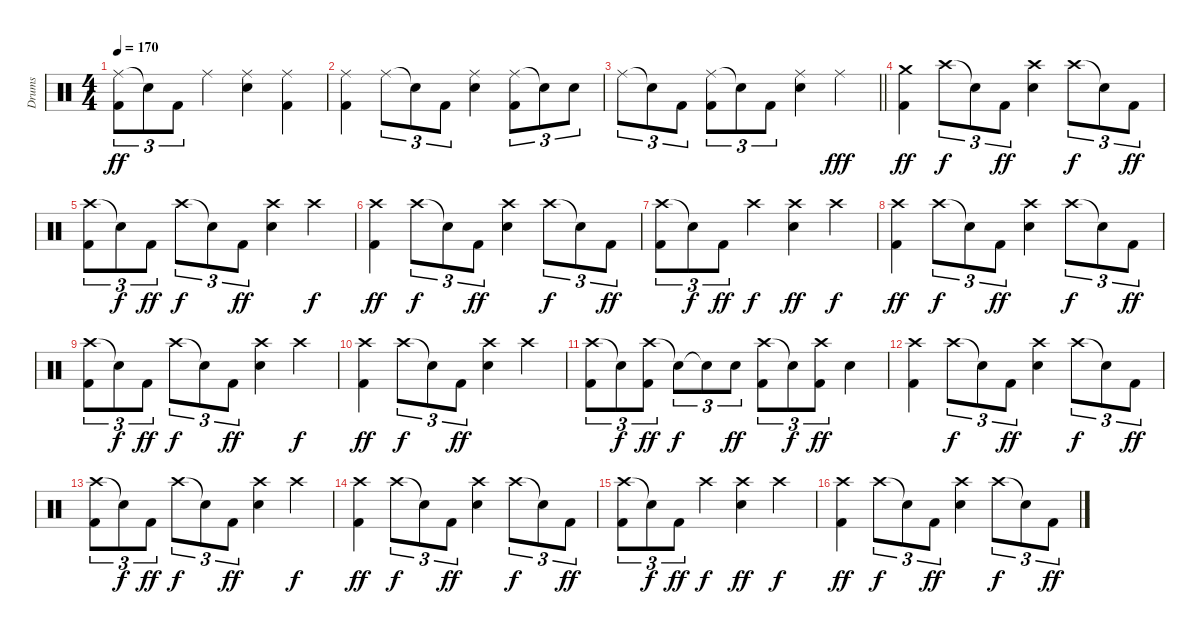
\track ("Drums" "Drums") {instrument percussion}
\staff {score}
\articulation defaults
\ts (4 4)
\tempo 170
\clef neutral
\ks c
("Ride (middle)" "Kick (hit) 2").8{tu (3 2) dy ff} "Snare (hit)"{t}.8{tu (3 2)} "Kick (hit) 2".8{tu (3 2)} "Ride (middle)".4 ("Ride (middle)" "Snare (hit) 2").4 ("Ride (middle)" "Kick (hit) 2").4 |
("Ride (middle)" "Kick (hit) 2").4 "Ride (middle)".8{tu (3 2)} "Snare (hit)"{t}.8{tu (3 2)} "Kick (hit) 2".8{tu (3 2)} ("Ride (middle)" "Snare (hit) 2").4 ("Ride (middle)" "Kick (hit) 2").8{tu (3 2)} "Snare (hit)"{t}.8{tu (3 2)} "Snare (hit) 2".8{tu (3 2)} |
\barLineRight lightlight "Ride (middle)".8{tu (3 2)} "Snare (hit)"{t}.8{tu (3 2)} "Kick (hit) 2".8{tu (3 2)}
("Ride (middle)" "Kick (hit) 2").8{tu (3 2)} "Snare (hit)"{t}.8{tu (3 2)} "Kick (hit) 2".8{tu (3 2)} ("Ride (middle)" "Snare (hit) 2").4 "Ride (middle)".4{dy fff} |
("Crash medium (hit)" "Kick (hit) 2").4{dy ff} "Crash high (hit)".8{tu (3 2) dy f} "Snare (hit)"{t}.8{tu (3 2)} "Kick (hit) 2".8{tu (3 2) dy ff} ("Crash high (hit)" "Snare (hit) 2").4 "Crash high (hit)".8{tu (3 2) dy f} "Snare (hit)"{t}.8{tu (3 2)} "Kick (hit) 2".8{tu (3 2) dy ff} |
("Crash high (hit)" "Kick (hit) 2").8{tu (3 2)} "Snare (hit)"{t}.8{tu (3 2) dy f} "Kick (hit) 2".8{tu (3 2) dy ff} "Crash high (hit)".8{tu (3 2) dy f} "Snare (hit)"{t}.8{tu (3 2)} "Kick (hit) 2".8{tu (3 2) dy ff} ("Crash high (hit)" "Snare (hit) 2").4 "Crash high (hit)".4{dy f} |
("Crash high (hit)" "Kick (hit) 2").4{dy ff} "Crash high (hit)".8{tu (3 2) dy f} "Snare (hit)"{t}.8{tu (3 2)} "Kick (hit) 2".8{tu (3 2) dy ff} ("Crash high (hit)" "Snare (hit) 2").4 "Crash high (hit)".8{tu (3 2) dy f} "Snare (hit)"{t}.8{tu (3 2)} "Kick (hit) 2".8{tu (3 2) dy ff} |
("Crash high (hit)" "Kick (hit) 2").8{tu (3 2)} "Snare (hit)"{t}.8{tu (3 2) dy f} "Kick (hit) 2".8{tu (3 2) dy ff} "Crash high (hit)".4{dy f} ("Crash high (hit)" "Snare (hit) 2").4{dy ff} "Crash high (hit)".4{dy f} |
("Crash high (hit)" "Kick (hit) 2").4{dy ff} "Crash high (hit)".8{tu (3 2) dy f} "Snare (hit)"{t}.8{tu (3 2)} "Kick (hit) 2".8{tu (3 2) dy ff} ("Crash high (hit)" "Snare (hit) 2").4 "Crash high (hit)".8{tu (3 2) dy f} "Snare (hit)"{t}.8{tu (3 2)} "Kick (hit) 2".8{tu (3 2) dy ff} |
("Crash high (hit)" "Kick (hit) 2").8{tu (3 2)} "Snare (hit)"{t}.8{tu (3 2) dy f} "Kick (hit) 2".8{tu (3 2) dy ff} "Crash high (hit)".8{tu (3 2) dy f} "Snare (hit)"{t}.8{tu (3 2)} "Kick (hit) 2".8{tu (3 2) dy ff} ("Crash high (hit)" "Snare (hit) 2").4 "Crash high (hit)".4{dy f} |
("Crash high (hit)" "Kick (hit) 2").4{dy ff} "Crash high (hit)".8{tu (3 2) dy f} "Snare (hit)"{t}.8{tu (3 2)} "Kick (hit) 2".8{tu (3 2) dy ff} ("Crash high (hit)" "Snare (hit) 2").4 "Crash high (hit)".4 |
("Crash high (hit)" "Kick (hit) 2").8{tu (3 2)} "Snare (hit)"{t}.8{tu (3 2) dy f} ("Crash high (hit)" "Kick (hit) 2").8{tu (3 2) dy ff} "Snare (hit)"{t}.8{tu (3 2) dy f} "Snare (hit)"{t}.8{tu (3 2)} "Snare (hit) 2".8{tu (3 2) dy ff} ("Crash high (hit)" "Kick (hit) 2").8{tu (3 2)} "Snare (hit)"{t}.8{tu (3 2) dy f} ("Crash high (hit)" "Kick (hit) 2").8{tu (3 2) dy ff} "Snare (hit) 2".4 |
("Crash high (hit)" "Kick (hit) 2").4 "Crash high (hit)".8{tu (3 2) dy f} "Snare (hit)"{t}.8{tu (3 2)} "Kick (hit) 2".8{tu (3 2) dy ff} ("Crash high (hit)" "Snare (hit) 2").4 "Crash high (hit)".8{tu (3 2) dy f} "Snare (hit)"{t}.8{tu (3 2)} "Kick (hit) 2".8{tu (3 2) dy ff} |
("Crash high (hit)" "Kick (hit) 2").8{tu (3 2)} "Snare (hit)"{t}.8{tu (3 2) dy f} "Kick (hit) 2".8{tu (3 2) dy ff} "Crash high (hit)".8{tu (3 2) dy f} "Snare (hit)"{t}.8{tu (3 2)} "Kick (hit) 2".8{tu (3 2) dy ff} ("Crash high (hit)" "Snare (hit) 2").4 "Crash high (hit)".4{dy f} |
("Crash high (hit)" "Kick (hit) 2").4{dy ff} "Crash high (hit)".8{tu (3 2) dy f} "Snare (hit)"{t}.8{tu (3 2)} "Kick (hit) 2".8{tu (3 2) dy ff} ("Crash high (hit)" "Snare (hit) 2").4 "Crash high (hit)".8{tu (3 2) dy f} "Snare (hit)"{t}.8{tu (3 2)} "Kick (hit) 2".8{tu (3 2) dy ff} |
("Crash high (hit)" "Kick (hit) 2").8{tu (3 2)} "Snare (hit)"{t}.8{tu (3 2) dy f} "Kick (hit) 2".8{tu (3 2) dy ff} "Crash high (hit)".4{dy f} ("Crash high (hit)" "Snare (hit) 2").4{dy ff} "Crash high (hit)".4{dy f} |
("Crash high (hit)" "Kick (hit) 2").4{dy ff} "Crash high (hit)".8{tu (3 2) dy f} "Snare (hit)"{t}.8{tu (3 2)} "Kick (hit) 2".8{tu (3 2) dy ff} ("Crash high (hit)" "Snare (hit) 2").4 "Crash high (hit)".8{tu (3 2) dy f} "Snare (hit)"{t}.8{tu (3 2)} "Kick (hit) 2".8{tu (3 2) dy ff}
